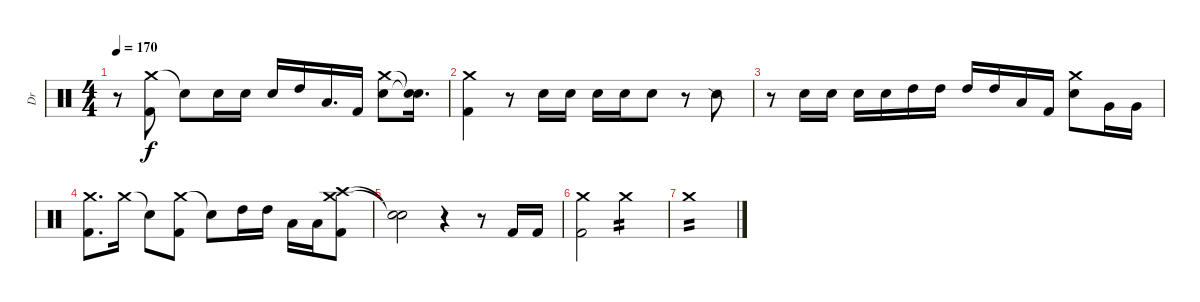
\track ("Dr" "Dr") {instrument percussion}
\staff {score}
\articulation defaults
\ts (4 4)
\tempo 170
\clef neutral
\ks c
r.8{dy f} ("Crash medium (hit)" "Kick (hit) 2").8 "Snare (hit)"{t}.8 "Electric Snare (hit)".16 "Electric Snare (hit)".16 "Electric Snare (hit)".16 "High Tom (hit)".16 "Low Tom (hit)".16{d} "Kick (hit) 2".16 ("Crash medium (hit)" "Electric Snare (hit)").8 ("Snare (hit)"{t} "Snare (hit)"{t}).16{d} |
("Crash medium (hit)" "Kick (hit) 2").4 r.8 "Electric Snare (hit)".16 "Electric Snare (hit)".16 "Electric Snare (hit)".16 "Electric Snare (hit)".16 "Electric Snare (hit)".8 r.8 "Snare (side stick) 2".8 |
r.8 "Electric Snare (hit)".16 "Electric Snare (hit)".16 "Electric Snare (hit)".16 "Electric Snare (hit)".16 "High Tom (hit)".16 "High Tom (hit)".16 "High Tom (hit)".16 "High Tom (hit)".16 "Low Tom (hit)".16 "Kick (hit) 2".16 ("Crash medium (hit)" "Electric Snare (hit)").8 "Very Low Tom (hit)".16 "Very Low Tom (hit)".16 |
("Crash medium (hit)" "Kick (hit) 2").8{d} "Crash medium (hit)".16 "Snare (hit)"{t}.8 ("Crash medium (hit)" "Kick (hit) 2").8 "Snare (hit)"{t}.8 "High Tom (hit)".16 "High Tom (hit)".16 "Low Tom (hit)".16 "Low Tom (hit)".16 ("Crash medium (hit)" "Crash high (hit)" "Kick (hit) 2").8 |
("Snare (hit)"{t} "Snare (hit)"{t}).2 r.4 r.8 "Kick (hit) 2".16 "Kick (hit) 2".16 |
("Crash medium (hit)" "Kick (hit) 2").2 "Crash medium (hit)".2{tp 2} |
"Crash medium (hit)".1{tp 2 volume 8}
